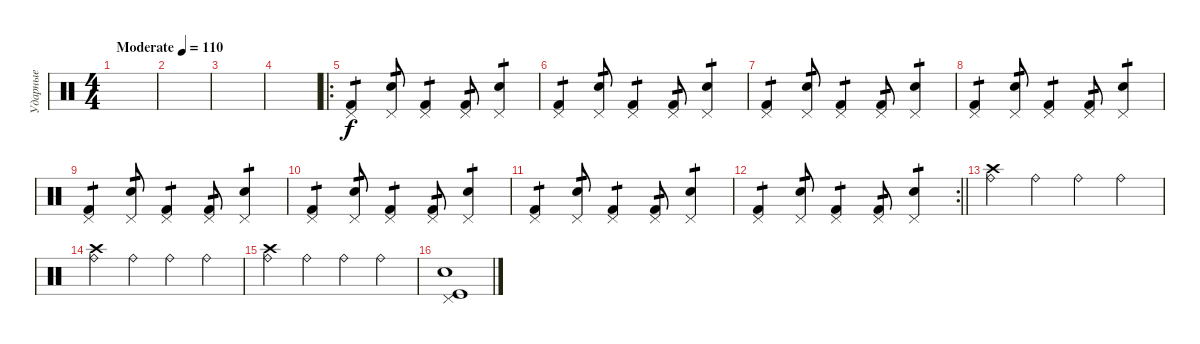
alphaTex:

\track ("Ударные" "Ударные") {instrument percussion}
\staff {score}
\articulation defaults
\ts (4 4)
\tempo (110 "Moderate")
\clef neutral
\ks c
|
|
|
|
\ro
("Pedal Hi-Hat (hit)" "Kick (hit) 2").4{tp 1} ("Pedal Hi-Hat (hit)" "Electric Snare (hit)").8{tp 1} ("Pedal Hi-Hat (hit)" "Kick (hit) 2").4{tp 1} ("Pedal Hi-Hat (hit)" "Kick (hit) 2").8{tp 1} ("Pedal Hi-Hat (hit)" "Electric Snare (hit)").4{tp 1} |
("Pedal Hi-Hat (hit)" "Kick (hit) 2").4{tp 1} ("Pedal Hi-Hat (hit)" "Electric Snare (hit)").8{tp 1} ("Pedal Hi-Hat (hit)" "Kick (hit) 2").4{tp 1} ("Pedal Hi-Hat (hit)" "Kick (hit) 2").8{tp 1} ("Pedal Hi-Hat (hit)" "Electric Snare (hit)").4{tp 1} |
("Pedal Hi-Hat (hit)" "Kick (hit) 2").4{tp 1} ("Pedal Hi-Hat (hit)" "Electric Snare (hit)").8{tp 1} ("Pedal Hi-Hat (hit)" "Kick (hit) 2").4{tp 1} ("Pedal Hi-Hat (hit)" "Kick (hit) 2").8{tp 1} ("Pedal Hi-Hat (hit)" "Electric Snare (hit)").4{tp 1} |
("Pedal Hi-Hat (hit)" "Kick (hit) 2").4{tp 1} ("Pedal Hi-Hat (hit)" "Electric Snare (hit)").8{tp 1} ("Pedal Hi-Hat (hit)" "Kick (hit) 2").4{tp 1} ("Pedal Hi-Hat (hit)" "Kick (hit) 2").8{tp 1} ("Pedal Hi-Hat (hit)" "Electric Snare (hit)").4{tp 1} |
("Pedal Hi-Hat (hit)" "Kick (hit) 2").4{tp 1} ("Pedal Hi-Hat (hit)" "Electric Snare (hit)").8{tp 1} ("Pedal Hi-Hat (hit)" "Kick (hit) 2").4{tp 1} ("Pedal Hi-Hat (hit)" "Kick (hit) 2").8{tp 1} ("Pedal Hi-Hat (hit)" "Electric Snare (hit)").4{tp 1} |
("Pedal Hi-Hat (hit)" "Kick (hit) 2").4{tp 1} ("Pedal Hi-Hat (hit)" "Electric Snare (hit)").8{tp 1} ("Pedal Hi-Hat (hit)" "Kick (hit) 2").4{tp 1} ("Pedal Hi-Hat (hit)" "Kick (hit) 2").8{tp 1} ("Pedal Hi-Hat (hit)" "Electric Snare (hit)").4{tp 1} |
("Pedal Hi-Hat (hit)" "Kick (hit) 2").4{tp 1} ("Pedal Hi-Hat (hit)" "Electric Snare (hit)").8{tp 1} ("Pedal Hi-Hat (hit)" "Kick (hit) 2").4{tp 1} ("Pedal Hi-Hat (hit)" "Kick (hit) 2").8{tp 1} ("Pedal Hi-Hat (hit)" "Electric Snare (hit)").4{tp 1} |
\rc 2
\barLineRight lightlight
("Pedal Hi-Hat (hit)" "Kick (hit) 2").4{tp 1} ("Pedal Hi-Hat (hit)" "Electric Snare (hit)").8{tp 1} ("Pedal Hi-Hat (hit)" "Kick (hit) 2").4{tp 1} ("Pedal Hi-Hat (hit)" "Kick (hit) 2").8{tp 1} ("Pedal Hi-Hat (hit)" "Electric Snare (hit)").4{tp 1} |
("Crash high (hit)" "Ride (bell)").4 "Ride (bell)".4 "Ride (bell)".4 "Ride (bell)".4 |
("Crash high (hit)" "Ride (bell)").4 "Ride (bell)".4 "Ride (bell)".4 "Ride (bell)".4 |
("Crash high (hit)" "Ride (bell)").4 "Ride (bell)".4 "Ride (bell)".4 "Ride (bell)".4 |
("Pedal Hi-Hat (hit)" "Electric Snare (hit)" "Kick (hit)").1
